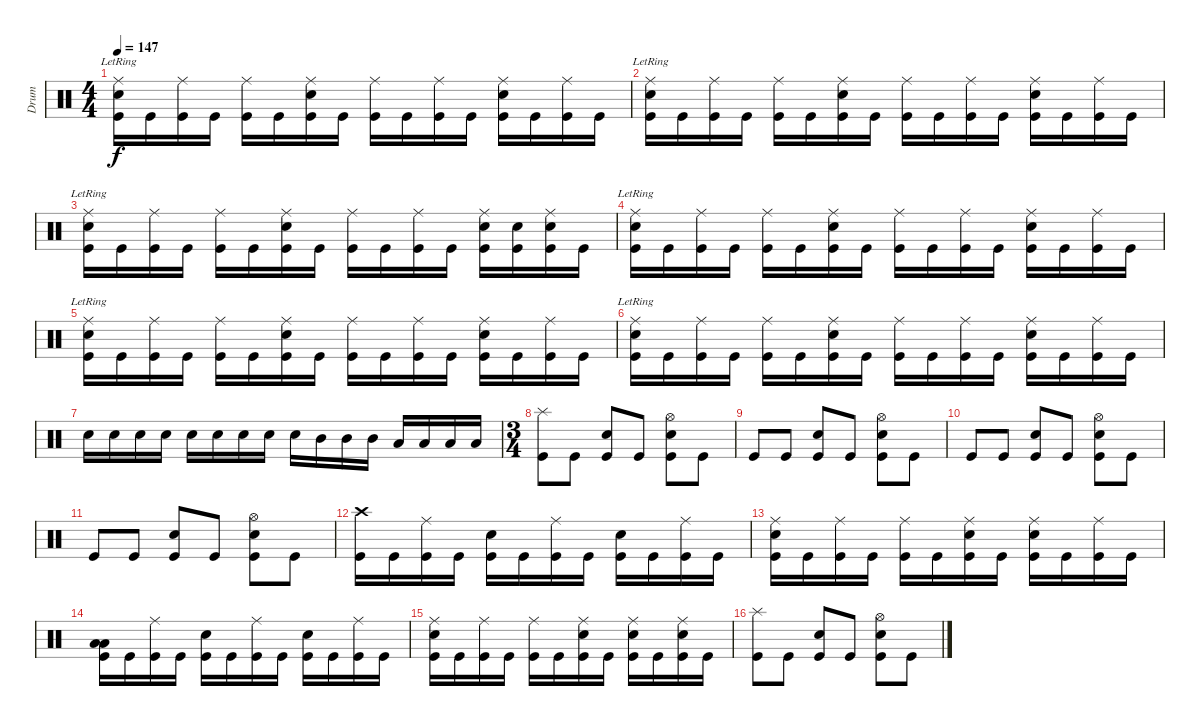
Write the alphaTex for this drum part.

\track ("Drum" "Drum") {instrument percussion}
\staff {score}
\articulation defaults
\ts (4 4)
\tempo 147
\clef neutral
\ks c
("Ride (middle)"{lr} "Snare (hit) 2" "Kick (hit)").16{dy f} "Kick (hit)".16 ("Ride (middle)" "Kick (hit)").16 "Kick (hit)".16 ("Ride (middle)" "Kick (hit)").16 "Kick (hit)".16 ("Ride (middle)" "Snare (hit) 2" "Kick (hit)").16 "Kick (hit)".16 ("Ride (middle)" "Kick (hit)").16 "Kick (hit)".16 ("Ride (middle)" "Kick (hit)").16 "Kick (hit)".16 ("Ride (middle)" "Snare (hit) 2" "Kick (hit)").16 "Kick (hit)".16 ("Ride (middle)" "Kick (hit)").16 "Kick (hit)".16 |
("Ride (middle)"{lr} "Snare (hit) 2" "Kick (hit)").16 "Kick (hit)".16 ("Ride (middle)" "Kick (hit)").16 "Kick (hit)".16 ("Ride (middle)" "Kick (hit)").16 "Kick (hit)".16 ("Ride (middle)" "Snare (hit) 2" "Kick (hit)").16 "Kick (hit)".16 ("Ride (middle)" "Kick (hit)").16 "Kick (hit)".16 ("Ride (middle)" "Kick (hit)").16 "Kick (hit)".16 ("Ride (middle)" "Snare (hit) 2" "Kick (hit)").16 "Kick (hit)".16 ("Ride (middle)" "Kick (hit)").16 "Kick (hit)".16 |
("Ride (middle)"{lr} "Snare (hit) 2" "Kick (hit)").16 "Kick (hit)".16 ("Ride (middle)" "Kick (hit)").16 "Kick (hit)".16 ("Ride (middle)" "Kick (hit)").16 "Kick (hit)".16 ("Ride (middle)" "Snare (hit) 2" "Kick (hit)").16 "Kick (hit)".16 ("Ride (middle)" "Kick (hit)").16 "Kick (hit)".16 ("Ride (middle)" "Kick (hit)").16 "Kick (hit)".16 ("Ride (middle)" "Snare (hit) 2" "Kick (hit)").16 ("Snare (hit) 2" "Kick (hit)").16 ("Ride (middle)" "Snare (hit) 2" "Kick (hit)").16 "Kick (hit)".16 |
("Ride (middle)"{lr} "Snare (hit) 2" "Kick (hit)").16 "Kick (hit)".16 ("Ride (middle)" "Kick (hit)").16 "Kick (hit)".16 ("Ride (middle)" "Kick (hit)").16 "Kick (hit)".16 ("Ride (middle)" "Snare (hit) 2" "Kick (hit)").16 "Kick (hit)".16 ("Ride (middle)" "Kick (hit)").16 "Kick (hit)".16 ("Ride (middle)" "Kick (hit)").16 "Kick (hit)".16 ("Ride (middle)" "Snare (hit) 2" "Kick (hit)").16 "Kick (hit)".16 ("Ride (middle)" "Kick (hit)").16 "Kick (hit)".16 |
("Ride (middle)"{lr} "Snare (hit) 2" "Kick (hit)").16 "Kick (hit)".16 ("Ride (middle)" "Kick (hit)").16 "Kick (hit)".16 ("Ride (middle)" "Kick (hit)").16 "Kick (hit)".16 ("Ride (middle)" "Snare (hit) 2" "Kick (hit)").16 "Kick (hit)".16 ("Ride (middle)" "Kick (hit)").16 "Kick (hit)".16 ("Ride (middle)" "Kick (hit)").16 "Kick (hit)".16 ("Ride (middle)" "Snare (hit) 2" "Kick (hit)").16 "Kick (hit)".16 ("Ride (middle)" "Kick (hit)").16 "Kick (hit)".16 |
("Ride (middle)"{lr} "Snare (hit) 2" "Kick (hit)").16 "Kick (hit)".16 ("Ride (middle)" "Kick (hit)").16 "Kick (hit)".16 ("Ride (middle)" "Kick (hit)").16 "Kick (hit)".16 ("Ride (middle)" "Snare (hit) 2" "Kick (hit)").16 "Kick (hit)".16 ("Ride (middle)" "Kick (hit)").16 "Kick (hit)".16 ("Ride (middle)" "Kick (hit)").16 "Kick (hit)".16 ("Ride (middle)" "Snare (hit) 2" "Kick (hit)").16 "Kick (hit)".16 ("Ride (middle)" "Kick (hit)").16 "Kick (hit)".16 |
"Snare (hit) 2".16 "Snare (hit) 2".16 "Snare (hit) 2".16 "Snare (hit) 2".16 "Snare (hit) 2".16 "Snare (hit) 2".16 "Snare (hit) 2".16 "Snare (hit) 2".16 "Snare (hit) 2".16 "Mid Tom (hit)".16 "Mid Tom (hit)".16 "Mid Tom (hit)".16 "Low Tom (hit)".16 "Low Tom (hit)".16 "Low Tom (hit)".16 "Low Tom (hit)".16 |
\ts (3 4)
("Splash (hit)" "Kick (hit)").8 "Kick (hit)".8 ("Snare (hit) 2" "Kick (hit)").8 "Kick (hit)".8 ("Hi-Hat (open)" "Snare (hit) 2" "Kick (hit)").8 "Kick (hit)".8 |
"Kick (hit)".8 "Kick (hit)".8 ("Snare (hit) 2" "Kick (hit)").8 "Kick (hit)".8 ("Hi-Hat (open)" "Snare (hit) 2" "Kick (hit)").8 "Kick (hit)".8 |
"Kick (hit)".8 "Kick (hit)".8 ("Snare (hit) 2" "Kick (hit)").8 "Kick (hit)".8 ("Hi-Hat (open)" "Snare (hit) 2" "Kick (hit)").8 "Kick (hit)".8 |
"Kick (hit)".8 "Kick (hit)".8 ("Snare (hit) 2" "Kick (hit)").8 "Kick (hit)".8 ("Hi-Hat (open)" "Snare (hit) 2" "Kick (hit)").8 "Kick (hit)".8 |
("Crash high (hit)" "Kick (hit)").16 "Kick (hit)".16 ("Ride (middle)" "Kick (hit)").16 "Kick (hit)".16 ("Snare (hit) 2" "Kick (hit)").16 "Kick (hit)".16 ("Ride (middle)" "Kick (hit)").16 "Kick (hit)".16 ("Snare (hit) 2" "Kick (hit)").16 "Kick (hit)".16 ("Ride (middle)" "Kick (hit)").16 "Kick (hit)".16 |
("Ride (middle)" "Snare (hit) 2" "Kick (hit)").16 "Kick (hit)".16 ("Ride (middle)" "Kick (hit)").16 "Kick (hit)".16 ("Ride (middle)" "Kick (hit)").16 "Kick (hit)".16 ("Ride (middle)" "Snare (hit) 2" "Kick (hit)").16 "Kick (hit)".16 ("Ride (middle)" "Snare (hit) 2" "Kick (hit)").16 "Kick (hit)".16 ("Ride (middle)" "Kick (hit)").16 "Kick (hit)".16 |
("Low Floor Tom (hit)" "Low Floor Tom (hit)" "Kick (hit)").16 "Kick (hit)".16 ("Ride (middle)" "Kick (hit)").16 "Kick (hit)".16 ("Snare (hit) 2" "Kick (hit)").16 "Kick (hit)".16 ("Ride (middle)" "Kick (hit)").16 "Kick (hit)".16 ("Snare (hit) 2" "Kick (hit)").16 "Kick (hit)".16 ("Ride (middle)" "Kick (hit)").16 "Kick (hit)".16 |
("Ride (middle)" "Snare (hit) 2" "Kick (hit)").16 "Kick (hit)".16 ("Ride (middle)" "Kick (hit)").16 "Kick (hit)".16 ("Ride (middle)" "Kick (hit)").16 "Kick (hit)".16 ("Ride (middle)" "Snare (hit) 2" "Kick (hit)").16 "Kick (hit)".16 ("Ride (middle)" "Snare (hit) 2" "Kick (hit)").16 "Kick (hit)".16 ("Ride (middle)" "Snare (hit) 2" "Kick (hit)").16 "Kick (hit)".16 |
("Splash (hit)" "Kick (hit)").8 "Kick (hit)".8 ("Snare (hit) 2" "Kick (hit)").8 "Kick (hit)".8 ("Hi-Hat (open)" "Snare (hit) 2" "Kick (hit)").8 "Kick (hit)".8
